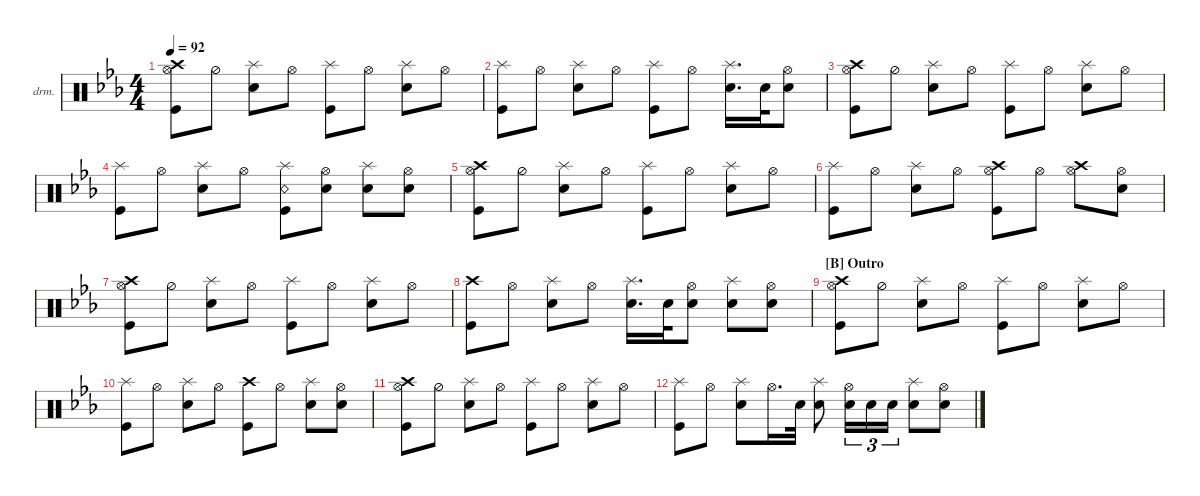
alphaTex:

\defaultSystemsLayout 4
\hideDynamics
\bracketExtendMode nobrackets
\firstSystemTrackNameOrientation horizontal
\otherSystemsTrackNameOrientation horizontal
\track ("Drumkit" "drm.") {instrument percussion}
\staff {score}
\articulation defaults
\ts (4 4)
\beaming (8 2 2 2 2)
\tempo 92
\clef neutral
\ks eb
("Crash high (hit)" "Kick (hit)" "Hi-Hat (open)").8{dy mf} "Hi-Hat (half)".8 ("Snare (hit) 2" "Splash (hit)").8 "Hi-Hat (open)".8 ("Kick (hit)" "Splash (hit)").8 "Hi-Hat (open)".8 ("Snare (hit) 2" "Splash (hit)").8 "Hi-Hat (open)".8 |
("Kick (hit)" "Splash (hit)").8 "Hi-Hat (open)".8 ("Snare (hit) 2" "Splash (hit)").8 "Hi-Hat (open)".8 ("Kick (hit)" "Splash (hit)").8 "Hi-Hat (open)".8 ("Snare (hit) 2" "Splash (hit)").16{d} "Snare (hit) 2".32 ("Snare (hit) 2" "Hi-Hat (open)").8 |
("Crash high (hit)" "Kick (hit)" "Hi-Hat (open)").8 "Hi-Hat (half)".8 ("Snare (hit) 2" "Splash (hit)").8 "Hi-Hat (open)".8 ("Kick (hit)" "Splash (hit)").8 "Hi-Hat (open)".8 ("Snare (hit) 2" "Splash (hit)").8 "Hi-Hat (open)".8 |
("Kick (hit)" "Splash (hit)").8 "Hi-Hat (open)".8 ("Snare (hit) 2" "Splash (hit)").8 "Hi-Hat (open)".8 ("Kick (hit)" "Splash (hit)" "Snare (rim shot)").8 ("Hi-Hat (open)" "Snare (hit) 2").8 ("Snare (hit) 2" "Splash (hit)").8 ("Snare (hit) 2" "Hi-Hat (open)").8 |
("Crash high (hit)" "Kick (hit)" "Hi-Hat (open)").8 "Hi-Hat (half)".8 ("Snare (hit) 2" "Splash (hit)").8 "Hi-Hat (open)".8 ("Kick (hit)" "Splash (hit)").8 "Hi-Hat (open)".8 ("Snare (hit) 2" "Splash (hit)").8 "Hi-Hat (open)".8 |
("Kick (hit)" "Splash (hit)").8 "Hi-Hat (open)".8 ("Snare (hit) 2" "Splash (hit)").8 "Hi-Hat (open)".8 ("Kick (hit)" "Hi-Hat (open)" "Crash high (hit)").8 "Hi-Hat (open)".8 ("Hi-Hat (open)" "Crash high (hit)").8 ("Snare (hit) 2" "Hi-Hat (open)").8 |
("Crash high (hit)" "Kick (hit)" "Hi-Hat (open)").8 "Hi-Hat (half)".8 ("Snare (hit) 2" "Splash (hit)").8 "Hi-Hat (open)".8 ("Kick (hit)" "Splash (hit)").8 "Hi-Hat (open)".8 ("Snare (hit) 2" "Splash (hit)").8 "Hi-Hat (open)".8 |
("Kick (hit)" "Crash high (hit)").8 "Hi-Hat (open)".8 ("Snare (hit) 2" "Splash (hit)").8 "Hi-Hat (open)".8 ("Snare (hit) 2" "Splash (hit)").16{d} "Snare (hit) 2".32 ("Snare (hit) 2" "Hi-Hat (open)").8 ("Snare (hit) 2" "Splash (hit)").8 ("Snare (hit) 2" "Hi-Hat (open)").8 |
\section ("B" "Outro")
("Crash high (hit)" "Kick (hit)" "Hi-Hat (open)").8 "Hi-Hat (half)".8 ("Snare (hit) 2" "Splash (hit)").8 "Hi-Hat (open)".8 ("Kick (hit)" "Splash (hit)").8 "Hi-Hat (open)".8 ("Snare (hit) 2" "Splash (hit)").8 "Hi-Hat (open)".8 |
("Kick (hit)" "Splash (hit)").8 "Hi-Hat (open)".8 ("Snare (hit) 2" "Splash (hit)").8 "Hi-Hat (open)".8 ("Kick (hit)" "Crash high (hit)").8 "Hi-Hat (open)".8 ("Snare (hit) 2" "Splash (hit)").8 ("Snare (hit) 2" "Hi-Hat (open)").8 |
("Crash high (hit)" "Kick (hit)" "Hi-Hat (open)").8 "Hi-Hat (half)".8 ("Snare (hit) 2" "Splash (hit)").8 "Hi-Hat (open)".8 ("Kick (hit)" "Splash (hit)").8 "Hi-Hat (open)".8 ("Snare (hit) 2" "Splash (hit)").8 "Hi-Hat (open)".8 |
("Kick (hit)" "Splash (hit)").8 "Hi-Hat (open)".8 ("Snare (hit) 2" "Splash (hit)").8 "Hi-Hat (open)".16{d} "Snare (hit) 2".32 ("Snare (hit) 2" "Splash (hit)").8 ("Snare (hit) 2" "Hi-Hat (open)").16{tu (3 2)} "Snare (hit) 2".16{tu (3 2)} "Snare (hit) 2".16{tu (3 2)} ("Snare (hit) 2" "Splash (hit)").8 ("Snare (hit) 2" "Hi-Hat (open)").8
